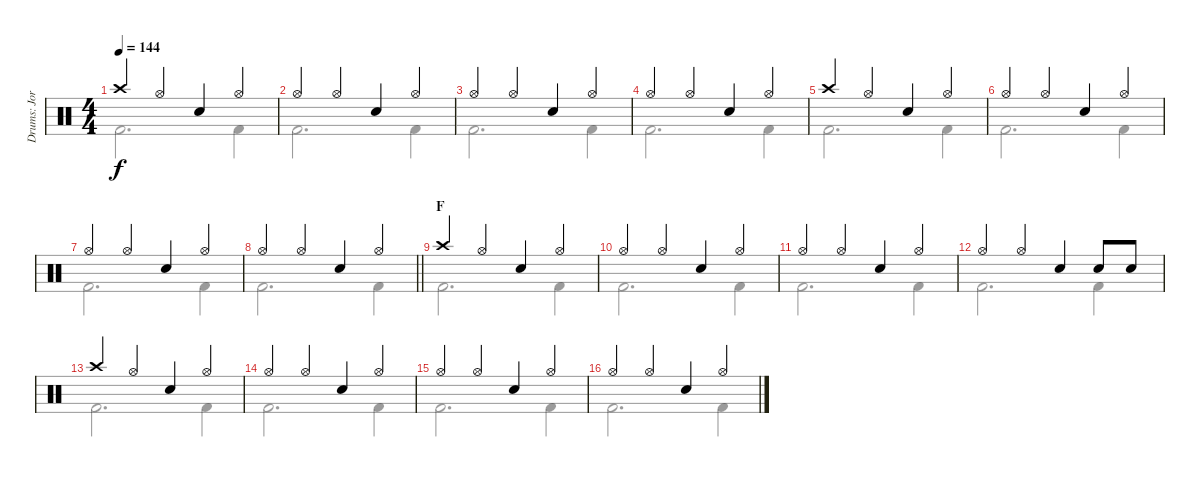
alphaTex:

\track ("Drums: Jorg" "Drums: Jor") {instrument percussion}
\staff {score}
\articulation defaults
\voice
\ts (4 4)
\tempo 144
\clef neutral
\ks c "Crash high (hit)".4{dy f} "Hi-Hat (open)".4 "Snare (hit) 2".4 "Hi-Hat (open)".4
|
"Hi-Hat (open)".4 "Hi-Hat (open)".4 "Snare (hit) 2".4 "Hi-Hat (open)".4 |
"Hi-Hat (open)".4 "Hi-Hat (open)".4 "Snare (hit) 2".4 "Hi-Hat (open)".4 |
"Hi-Hat (open)".4 "Hi-Hat (open)".4 "Snare (hit) 2".4 "Hi-Hat (open)".4 |
"Crash high (hit)".4 "Hi-Hat (open)".4 "Snare (hit) 2".4 "Hi-Hat (open)".4 |
"Hi-Hat (open)".4 "Hi-Hat (open)".4 "Snare (hit) 2".4 "Hi-Hat (open)".4 |
"Hi-Hat (open)".4 "Hi-Hat (open)".4 "Snare (hit) 2".4 "Hi-Hat (open)".4 |
\barLineRight lightlight "Hi-Hat (open)".4 "Hi-Hat (open)".4 "Snare (hit) 2".4 "Hi-Hat (open)".4
|
\section ("" "F")
"Crash high (hit)".4 "Hi-Hat (open)".4 "Snare (hit) 2".4 "Hi-Hat (open)".4 |
"Hi-Hat (open)".4 "Hi-Hat (open)".4 "Snare (hit) 2".4 "Hi-Hat (open)".4 |
"Hi-Hat (open)".4 "Hi-Hat (open)".4 "Snare (hit) 2".4 "Hi-Hat (open)".4 |
"Hi-Hat (open)".4 "Hi-Hat (open)".4 "Snare (hit) 2".4 "Electric Snare (hit)".8 "Snare (hit) 2".8 |
"Crash high (hit)".4 "Hi-Hat (open)".4 "Snare (hit) 2".4 "Hi-Hat (open)".4 |
"Hi-Hat (open)".4 "Hi-Hat (open)".4 "Snare (hit) 2".4 "Hi-Hat (open)".4 |
"Hi-Hat (open)".4 "Hi-Hat (open)".4 "Snare (hit) 2".4 "Hi-Hat (open)".4 |
"Hi-Hat (open)".4 "Hi-Hat (open)".4 "Snare (hit) 2".4 "Hi-Hat (open)".4
\voice
\clef neutral
\ottava regular
\simile none
\ks c "Kick (hit) 2".2{d dy f} "Kick (hit) 2".4
|
"Kick (hit) 2".2{d} "Kick (hit) 2".4 |
"Kick (hit) 2".2{d} "Kick (hit) 2".4 |
"Kick (hit) 2".2{d} "Kick (hit) 2".4 |
"Kick (hit) 2".2{d} "Kick (hit) 2".4 |
"Kick (hit) 2".2{d} "Kick (hit) 2".4 |
"Kick (hit) 2".2{d} "Kick (hit) 2".4 |
\barLineRight lightlight "Kick (hit) 2".2{d} "Kick (hit) 2".4
|
"Kick (hit) 2".2{d} "Kick (hit) 2".4 |
"Kick (hit) 2".2{d} "Kick (hit) 2".4 |
"Kick (hit) 2".2{d} "Kick (hit) 2".4 |
"Kick (hit) 2".2{d} "Kick (hit) 2".4 |
"Kick (hit) 2".2{d} "Kick (hit) 2".4 |
"Kick (hit) 2".2{d} "Kick (hit) 2".4 |
"Kick (hit) 2".2{d} "Kick (hit) 2".4 |
"Kick (hit) 2".2{d} "Kick (hit) 2".4
